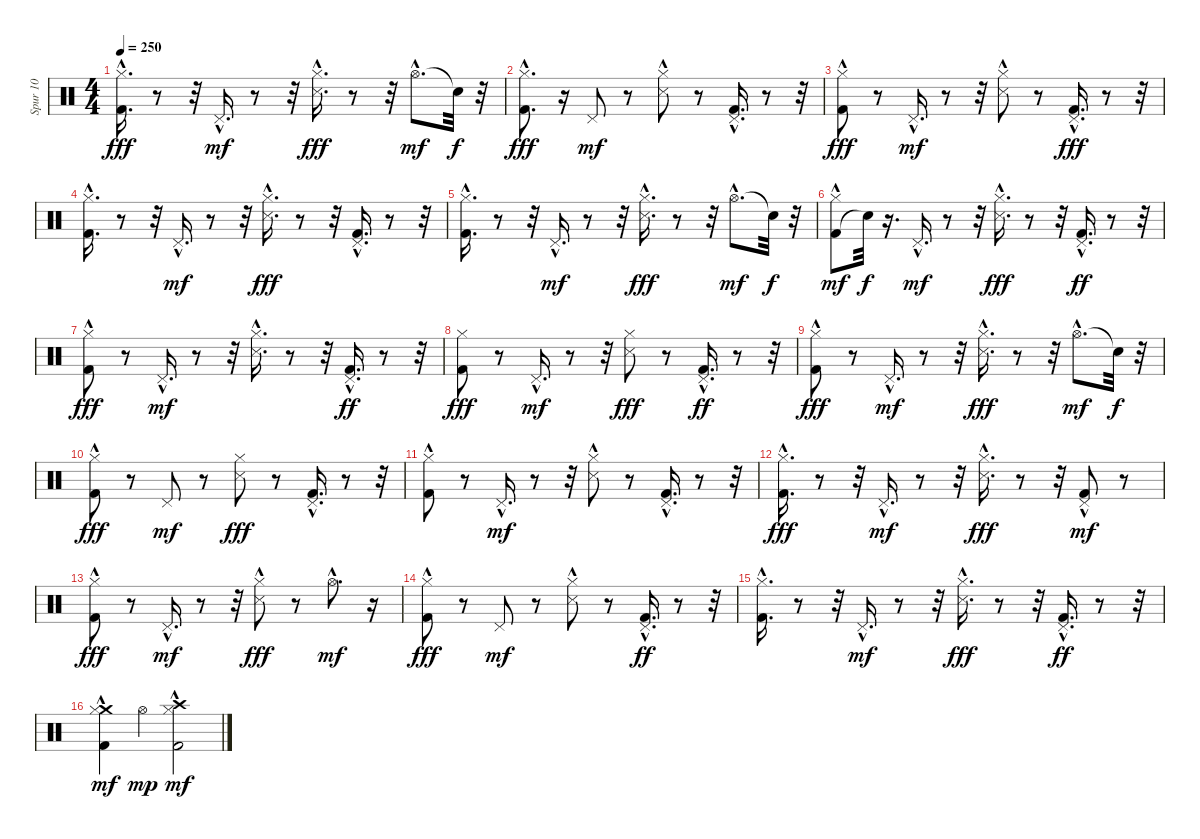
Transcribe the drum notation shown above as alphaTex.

\track ("Spur 10" "Spur 10") {instrument percussion}
\staff {score}
\articulation defaults
\ts (4 4)
\tempo 250
\clef neutral
\ks c
("Hi-Hat (closed)"{hac} "Kick (hit) 2"{hac}).16{d dy fff} r.8 r.32 "Pedal Hi-Hat (hit)"{hac}.16{d dy mf} r.8 r.32 ("Hi-Hat (closed)"{hac} "Snare (side stick) 3"{hac}).16{d dy fff} r.8 r.32 "Hi-Hat (open)"{hac}.8{d dy mf} "Snare (hit)"{t}.32{dy f} r.32 |
("Hi-Hat (closed)"{hac} "Kick (hit) 2").8{d dy fff} r.16 "Pedal Hi-Hat (hit)".8{dy mf} r.8 ("Snare (side stick) 3"{hac} "Hi-Hat (closed)").8 r.8 ("Pedal Hi-Hat (hit)"{hac} "Kick (hit) 2"{hac}).16{d} r.8 r.32 |
("Hi-Hat (closed)"{hac} "Kick (hit) 2").8{dy fff} r.8 "Pedal Hi-Hat (hit)"{hac}.16{d dy mf} r.8 r.32 ("Snare (side stick) 3"{hac} "Hi-Hat (closed)").8 r.8 ("Pedal Hi-Hat (hit)"{hac} "Kick (hit) 2"{hac}).16{d dy fff} r.8 r.32 |
("Hi-Hat (closed)"{hac} "Kick (hit) 2"{hac}).16{d} r.8 r.32 "Pedal Hi-Hat (hit)"{hac}.16{d dy mf} r.8 r.32 ("Hi-Hat (closed)"{hac} "Snare (side stick) 3"{hac}).16{d dy fff} r.8 r.32 ("Pedal Hi-Hat (hit)"{hac} "Kick (hit) 2"{hac}).16{d} r.8 r.32 |
("Hi-Hat (closed)"{hac} "Kick (hit) 2"{hac}).16{d} r.8 r.32 "Pedal Hi-Hat (hit)"{hac}.16{d dy mf} r.8 r.32 ("Hi-Hat (closed)" "Snare (side stick) 3"{hac}).16{d dy fff} r.8 r.32 "Hi-Hat (open)"{hac}.8{d dy mf} "Snare (hit)"{t}.32{dy f} r.32 |
("Kick (hit) 2"{hac} "Hi-Hat (closed)").8{dy mf} "Snare (hit)"{t}.32{dy f} r.16{d} "Pedal Hi-Hat (hit)"{hac}.16{d dy mf} r.8 r.32 ("Hi-Hat (closed)"{hac} "Snare (side stick) 3"{hac}).16{d dy fff} r.8 r.32 ("Pedal Hi-Hat (hit)"{hac} "Kick (hit) 2"{hac}).16{d dy ff} r.8 r.32 |
("Hi-Hat (closed)" "Kick (hit) 2"{hac}).8{dy fff} r.8 "Pedal Hi-Hat (hit)"{hac}.16{d dy mf} r.8 r.32 ("Snare (side stick) 3"{hac} "Hi-Hat (closed)"{hac}).16{d} r.8 r.32 ("Pedal Hi-Hat (hit)"{hac} "Kick (hit) 2"{hac}).16{d dy ff} r.8 r.32 |
("Hi-Hat (closed)" "Kick (hit) 2").8{dy fff} r.8 "Pedal Hi-Hat (hit)"{hac}.16{d dy mf} r.8 r.32 ("Hi-Hat (closed)" "Snare (side stick) 3").8{dy fff} r.8 ("Pedal Hi-Hat (hit)"{hac} "Kick (hit) 2"{hac}).16{d dy ff} r.8 r.32 |
("Hi-Hat (closed)" "Kick (hit) 2"{hac}).8{dy fff} r.8 "Pedal Hi-Hat (hit)"{hac}.16{d dy mf} r.8 r.32 ("Snare (side stick) 3"{hac} "Hi-Hat (closed)"{hac}).16{d dy fff} r.8 r.32 "Hi-Hat (open)"{hac}.8{d dy mf} "Snare (hit)"{t}.32{dy f} r.32 |
("Kick (hit) 2"{hac} "Hi-Hat (closed)").8{dy fff} r.8 "Pedal Hi-Hat (hit)".8{dy mf} r.8 ("Snare (side stick) 3" "Hi-Hat (closed)").8{dy fff} r.8 ("Pedal Hi-Hat (hit)"{hac} "Kick (hit) 2"{hac}).16{d} r.8 r.32 |
("Hi-Hat (closed)" "Kick (hit) 2"{hac}).8 r.8 "Pedal Hi-Hat (hit)"{hac}.16{d dy mf} r.8 r.32 ("Snare (side stick) 3"{hac} "Hi-Hat (closed)").8 r.8 ("Kick (hit) 2"{hac} "Pedal Hi-Hat (hit)"{hac}).16{d} r.8 r.32 |
("Hi-Hat (closed)"{hac} "Kick (hit) 2"{hac}).16{d dy fff} r.8 r.32 "Pedal Hi-Hat (hit)"{hac}.16{d dy mf} r.8 r.32 ("Hi-Hat (closed)"{hac} "Snare (side stick) 3"{hac}).16{d dy fff} r.8 r.32 ("Pedal Hi-Hat (hit)"{hac} "Kick (hit) 2").8{dy mf} r.8 |
("Hi-Hat (closed)" "Kick (hit) 2"{hac}).8{dy fff} r.8 "Pedal Hi-Hat (hit)"{hac}.16{d dy mf} r.8 r.32 ("Hi-Hat (closed)" "Snare (side stick) 3"{hac}).8{dy fff} r.8 "Hi-Hat (open)"{hac}.8{d dy mf} r.16 |
("Hi-Hat (closed)" "Kick (hit) 2"{hac}).8{dy fff} r.8 "Pedal Hi-Hat (hit)".8{dy mf} r.8 ("Snare (side stick) 3"{hac} "Hi-Hat (closed)").8 r.8 ("Pedal Hi-Hat (hit)"{hac} "Kick (hit) 2"{hac}).16{d dy ff} r.8 r.32 |
("Hi-Hat (closed)"{hac} "Kick (hit) 2"{hac}).16{d} r.8 r.32 "Pedal Hi-Hat (hit)"{hac}.16{d dy mf} r.8 r.32 ("Hi-Hat (closed)"{hac} "Snare (side stick) 3"{hac}).16{d dy fff} r.8 r.32 ("Pedal Hi-Hat (hit)"{hac} "Kick (hit) 2"{hac}).16{d dy ff} r.8 r.32 |
("Crash medium (hit)" "Kick (hit) 2" "Hi-Hat (closed)"{hac}).4{dy mf} "Hi-Hat (open)".4{dy mp} ("Crash high (hit)" "Kick (hit) 2" "Hi-Hat (closed)"{hac}).2{dy mf}
